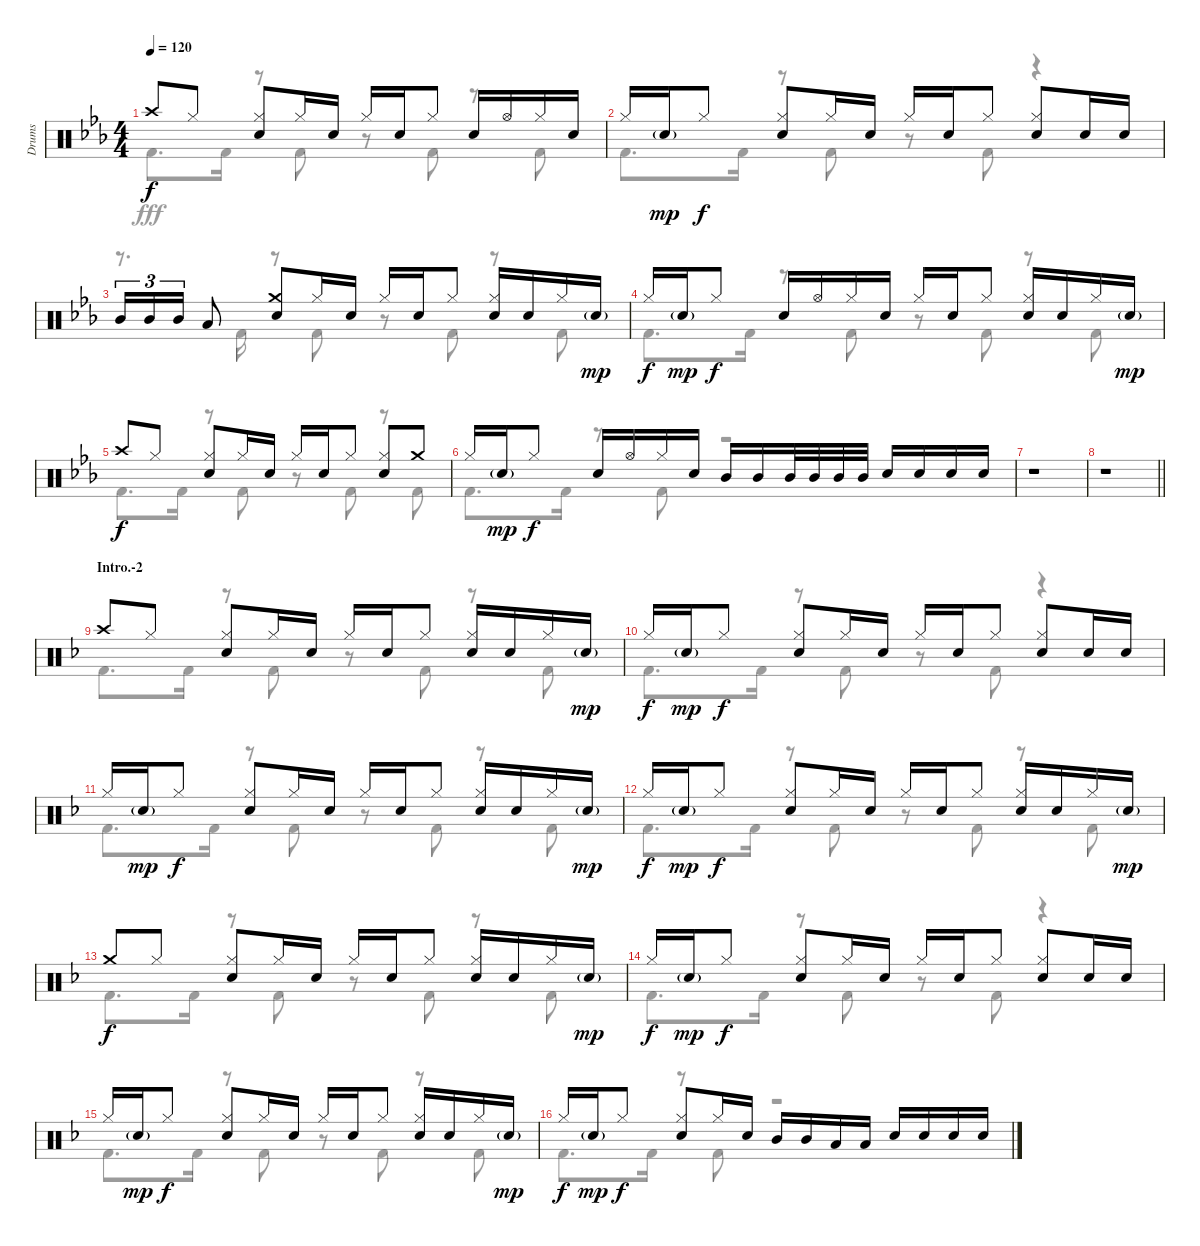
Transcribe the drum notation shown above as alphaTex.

\track ("Drums" "Drums") {instrument percussion}
\staff {score}
\articulation defaults
\voice
\ts (4 4)
\tempo 120
\clef neutral
\ks eb "Crash high (hit)".8{dy f} "Hi-Hat (closed)".8
("Hi-Hat (closed)" "Snare (hit) 2").8 "Hi-Hat (closed)".16 "Snare (hit) 2".16 "Hi-Hat (closed)".16 "Snare (hit) 2".16 "Hi-Hat (closed)".8 "Snare (hit) 2".16 "Hi-Hat (open)".16 "Hi-Hat (closed)".16 "Snare (hit) 2".16 |
"Hi-Hat (closed)".16 "Snare (hit) 2"{g}.16{dy mp} "Hi-Hat (closed)".8{dy f} ("Hi-Hat (closed)" "Snare (hit) 2").8 "Hi-Hat (closed)".16 "Snare (hit) 2".16 "Hi-Hat (closed)".16 "Snare (hit) 2".16 "Hi-Hat (closed)".8 ("Hi-Hat (closed)" "Snare (hit) 2").8 "Snare (hit) 2".16 "Snare (hit) 2".16 |
"Mid Tom (hit)".16{tu (3 2)} "Mid Tom (hit)".16{tu (3 2)} "Mid Tom (hit)".16{tu (3 2)} "Low Tom (hit)".8 ("Crash medium (hit)" "Snare (hit) 2").8 "Hi-Hat (closed)".16 "Snare (hit) 2".16 "Hi-Hat (closed)".16 "Snare (hit) 2".16 "Hi-Hat (closed)".8 ("Hi-Hat (closed)" "Snare (hit) 2").16 "Snare (hit) 2".16 "Hi-Hat (closed)".16 "Snare (hit) 2"{g}.16{dy mp} |
"Hi-Hat (closed)".16{dy f} "Snare (hit) 2"{g}.16{dy mp} "Hi-Hat (closed)".8{dy f} "Snare (hit) 2".16 "Hi-Hat (open)".16 "Hi-Hat (closed)".16 "Snare (hit) 2".16 "Hi-Hat (closed)".16 "Snare (hit) 2".16 "Hi-Hat (closed)".8 ("Hi-Hat (closed)" "Snare (hit) 2").16 "Snare (hit) 2".16 "Hi-Hat (closed)".16 "Snare (hit) 2"{g}.16{dy mp} |
"Crash high (hit)".8{dy f} "Hi-Hat (closed)".8 ("Hi-Hat (closed)" "Snare (hit) 2").8 "Hi-Hat (closed)".16 "Snare (hit) 2".16 "Hi-Hat (closed)".16 "Snare (hit) 2".16 "Hi-Hat (closed)".8 ("Hi-Hat (closed)" "Snare (hit) 2").8 "Crash medium (hit)".8 |
"Hi-Hat (closed)".16 "Snare (hit) 2"{g}.16{dy mp} "Hi-Hat (closed)".8{dy f} "Snare (hit) 2".16 "Hi-Hat (open)".16 "Hi-Hat (closed)".16 "Snare (hit) 2".16 "Mid Tom (hit)".16 "Mid Tom (hit)".16 "Mid Tom (hit)".32 "Mid Tom (hit)".32 "Mid Tom (hit)".32 "Mid Tom (hit)".32 "Snare (hit) 2".16 "Snare (hit) 2".16 "Snare (hit) 2".16 "Snare (hit) 2".16 |
r.1 |
\barLineRight lightlight
r.1 |
\section ("" "Intro.-2")
\ks f "Crash high (hit)".8 "Hi-Hat (closed)".8
("Hi-Hat (closed)" "Snare (hit) 2").8 "Hi-Hat (closed)".16 "Snare (hit) 2".16 "Hi-Hat (closed)".16 "Snare (hit) 2".16 "Hi-Hat (closed)".8 ("Hi-Hat (closed)" "Snare (hit) 2").16 "Snare (hit) 2".16 "Hi-Hat (closed)".16 "Snare (hit) 2"{g}.16{dy mp} |
"Hi-Hat (closed)".16{dy f} "Snare (hit) 2"{g}.16{dy mp} "Hi-Hat (closed)".8{dy f} ("Hi-Hat (closed)" "Snare (hit) 2").8 "Hi-Hat (closed)".16 "Snare (hit) 2".16 "Hi-Hat (closed)".16 "Snare (hit) 2".16 "Hi-Hat (closed)".8 ("Hi-Hat (closed)" "Snare (hit) 2").8 "Snare (hit) 2".16 "Snare (hit) 2".16 |
"Hi-Hat (closed)".16 "Snare (hit) 2"{g}.16{dy mp} "Hi-Hat (closed)".8{dy f} ("Hi-Hat (closed)" "Snare (hit) 2").8 "Hi-Hat (closed)".16 "Snare (hit) 2".16 "Hi-Hat (closed)".16 "Snare (hit) 2".16 "Hi-Hat (closed)".8 ("Hi-Hat (closed)" "Snare (hit) 2").16 "Snare (hit) 2".16 "Hi-Hat (closed)".16 "Snare (hit) 2"{g}.16{dy mp} |
"Hi-Hat (closed)".16{dy f} "Snare (hit) 2"{g}.16{dy mp} "Hi-Hat (closed)".8{dy f} ("Hi-Hat (closed)" "Snare (hit) 2").8 "Hi-Hat (closed)".16 "Snare (hit) 2".16 "Hi-Hat (closed)".16 "Snare (hit) 2".16 "Hi-Hat (closed)".8 ("Hi-Hat (closed)" "Snare (hit) 2").16 "Snare (hit) 2".16 "Hi-Hat (closed)".16 "Snare (hit) 2"{g}.16{dy mp} |
"Crash medium (hit)".8{dy f} "Hi-Hat (closed)".8 ("Hi-Hat (closed)" "Snare (hit) 2").8 "Hi-Hat (closed)".16 "Snare (hit) 2".16 "Hi-Hat (closed)".16 "Snare (hit) 2".16 "Hi-Hat (closed)".8 ("Hi-Hat (closed)" "Snare (hit) 2").16 "Snare (hit) 2".16 "Hi-Hat (closed)".16 "Snare (hit) 2"{g}.16{dy mp} |
"Hi-Hat (closed)".16{dy f} "Snare (hit) 2"{g}.16{dy mp} "Hi-Hat (closed)".8{dy f} ("Hi-Hat (closed)" "Snare (hit) 2").8 "Hi-Hat (closed)".16 "Snare (hit) 2".16 "Hi-Hat (closed)".16 "Snare (hit) 2".16 "Hi-Hat (closed)".8 ("Hi-Hat (closed)" "Snare (hit) 2").8 "Snare (hit) 2".16 "Snare (hit) 2".16 |
"Hi-Hat (closed)".16 "Snare (hit) 2"{g}.16{dy mp} "Hi-Hat (closed)".8{dy f} ("Hi-Hat (closed)" "Snare (hit) 2").8 "Hi-Hat (closed)".16 "Snare (hit) 2".16 "Hi-Hat (closed)".16 "Snare (hit) 2".16 "Hi-Hat (closed)".8 ("Hi-Hat (closed)" "Snare (hit) 2").16 "Snare (hit) 2".16 "Hi-Hat (closed)".16 "Snare (hit) 2"{g}.16{dy mp} |
"Hi-Hat (closed)".16{dy f} "Snare (hit) 2"{g}.16{dy mp} "Hi-Hat (closed)".8{dy f} ("Hi-Hat (closed)" "Snare (hit) 2").8 "Hi-Hat (closed)".16 "Snare (hit) 2".16 "Mid Tom (hit)".16 "Mid Tom (hit)".16 "Low Tom (hit)".16 "Low Tom (hit)".16 "Snare (hit) 2".16 "Snare (hit) 2".16 "Snare (hit) 2".16 "Snare (hit) 2".16
\voice
\clef neutral
\ottava regular
\simile none
\ks eb "Kick (hit) 2".8{d dy fff} "Kick (hit) 2".16
r.8 "Kick (hit) 2".8 r.8 "Kick (hit) 2".8 r.8 "Kick (hit) 2".8 |
"Kick (hit) 2".8{d} "Kick (hit) 2".16 r.8 "Kick (hit) 2".8 r.8 "Kick (hit) 2".8 r.4 |
r.8{d} "Kick (hit) 2".16 r.8 "Kick (hit) 2".8 r.8 "Kick (hit) 2".8 r.8 "Kick (hit) 2".8 |
"Kick (hit) 2".8{d} "Kick (hit) 2".16 r.8 "Kick (hit) 2".8 r.8 "Kick (hit) 2".8 r.8 "Kick (hit) 2".8 |
"Kick (hit) 2".8{d} "Kick (hit) 2".16 r.8 "Kick (hit) 2".8 r.8 "Kick (hit) 2".8 r.8 "Kick (hit) 2".8 |
"Kick (hit) 2".8{d} "Kick (hit) 2".16 r.8 "Kick (hit) 2".8 r.2 |
r.1 |
\barLineRight lightlight
r.1 |
\ks f "Kick (hit) 2".8{d} "Kick (hit) 2".16
r.8 "Kick (hit) 2".8 r.8 "Kick (hit) 2".8 r.8 "Kick (hit) 2".8 |
"Kick (hit) 2".8{d} "Kick (hit) 2".16 r.8 "Kick (hit) 2".8 r.8 "Kick (hit) 2".8 r.4 |
"Kick (hit) 2".8{d} "Kick (hit) 2".16 r.8 "Kick (hit) 2".8 r.8 "Kick (hit) 2".8 r.8 "Kick (hit) 2".8 |
"Kick (hit) 2".8{d} "Kick (hit) 2".16 r.8 "Kick (hit) 2".8 r.8 "Kick (hit) 2".8 r.8 "Kick (hit) 2".8 |
"Kick (hit) 2".8{d} "Kick (hit) 2".16 r.8 "Kick (hit) 2".8 r.8 "Kick (hit) 2".8 r.8 "Kick (hit) 2".8 |
"Kick (hit) 2".8{d} "Kick (hit) 2".16 r.8 "Kick (hit) 2".8 r.8 "Kick (hit) 2".8 r.4 |
"Kick (hit) 2".8{d} "Kick (hit) 2".16 r.8 "Kick (hit) 2".8 r.8 "Kick (hit) 2".8 r.8 "Kick (hit) 2".8 |
"Kick (hit) 2".8{d} "Kick (hit) 2".16 r.8 "Kick (hit) 2".8 r.2
